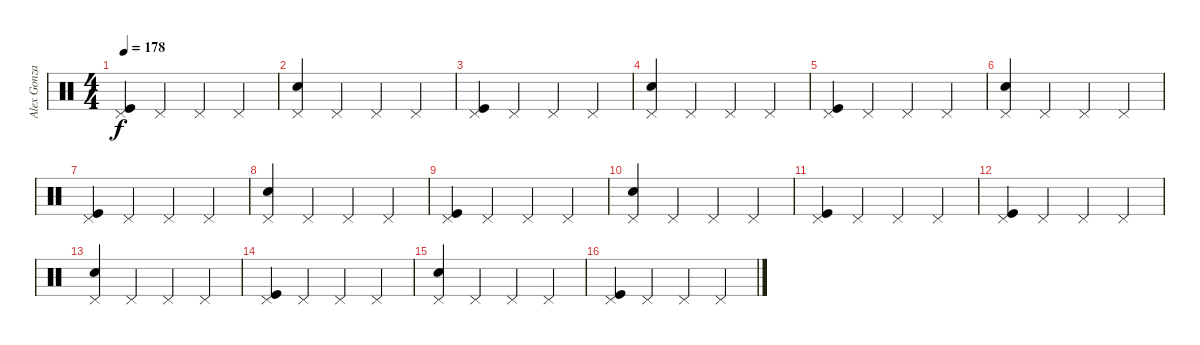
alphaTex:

\track ("Alex Gonzales" "Alex Gonza") {instrument percussion}
\staff {score}
\articulation defaults
\ts (4 4)
\tempo 178
\clef neutral
\ks c
("Pedal Hi-Hat (hit)" "Kick (hit)").4{dy f} "Pedal Hi-Hat (hit)".4 "Pedal Hi-Hat (hit)".4 "Pedal Hi-Hat (hit)".4 |
("Pedal Hi-Hat (hit)" "Snare (hit) 2").4 "Pedal Hi-Hat (hit)".4 "Pedal Hi-Hat (hit)".4 "Pedal Hi-Hat (hit)".4 |
("Pedal Hi-Hat (hit)" "Kick (hit)").4 "Pedal Hi-Hat (hit)".4 "Pedal Hi-Hat (hit)".4 "Pedal Hi-Hat (hit)".4 |
("Pedal Hi-Hat (hit)" "Snare (hit) 2").4 "Pedal Hi-Hat (hit)".4 "Pedal Hi-Hat (hit)".4 "Pedal Hi-Hat (hit)".4 |
("Pedal Hi-Hat (hit)" "Kick (hit)").4 "Pedal Hi-Hat (hit)".4 "Pedal Hi-Hat (hit)".4 "Pedal Hi-Hat (hit)".4 |
("Pedal Hi-Hat (hit)" "Snare (hit) 2").4 "Pedal Hi-Hat (hit)".4 "Pedal Hi-Hat (hit)".4 "Pedal Hi-Hat (hit)".4 |
("Pedal Hi-Hat (hit)" "Kick (hit)").4 "Pedal Hi-Hat (hit)".4 "Pedal Hi-Hat (hit)".4 "Pedal Hi-Hat (hit)".4 |
("Pedal Hi-Hat (hit)" "Snare (hit) 2").4 "Pedal Hi-Hat (hit)".4 "Pedal Hi-Hat (hit)".4 "Pedal Hi-Hat (hit)".4 |
("Pedal Hi-Hat (hit)" "Kick (hit)").4 "Pedal Hi-Hat (hit)".4 "Pedal Hi-Hat (hit)".4 "Pedal Hi-Hat (hit)".4 |
("Pedal Hi-Hat (hit)" "Snare (hit) 2").4 "Pedal Hi-Hat (hit)".4 "Pedal Hi-Hat (hit)".4 "Pedal Hi-Hat (hit)".4 |
("Pedal Hi-Hat (hit)" "Kick (hit)").4 "Pedal Hi-Hat (hit)".4 "Pedal Hi-Hat (hit)".4 "Pedal Hi-Hat (hit)".4 |
("Pedal Hi-Hat (hit)" "Kick (hit)").4 "Pedal Hi-Hat (hit)".4 "Pedal Hi-Hat (hit)".4 "Pedal Hi-Hat (hit)".4 |
("Pedal Hi-Hat (hit)" "Snare (hit) 2").4 "Pedal Hi-Hat (hit)".4 "Pedal Hi-Hat (hit)".4 "Pedal Hi-Hat (hit)".4 |
("Pedal Hi-Hat (hit)" "Kick (hit)").4 "Pedal Hi-Hat (hit)".4 "Pedal Hi-Hat (hit)".4 "Pedal Hi-Hat (hit)".4 |
("Pedal Hi-Hat (hit)" "Snare (hit) 2").4 "Pedal Hi-Hat (hit)".4 "Pedal Hi-Hat (hit)".4 "Pedal Hi-Hat (hit)".4 |
("Pedal Hi-Hat (hit)" "Kick (hit)").4 "Pedal Hi-Hat (hit)".4 "Pedal Hi-Hat (hit)".4 "Pedal Hi-Hat (hit)".4
